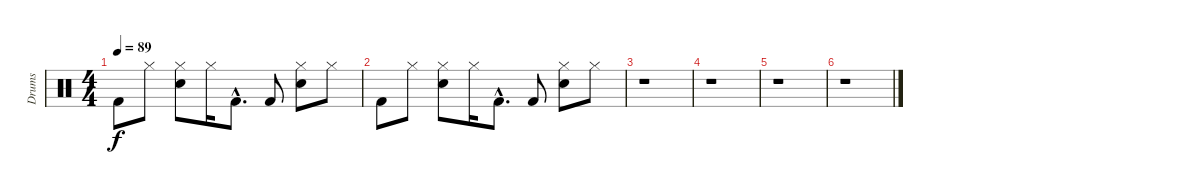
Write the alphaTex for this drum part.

\track ("Drums" "Drums") {instrument percussion}
\staff {score}
\articulation defaults
\ts (4 4)
\tempo 89
\clef neutral
\ks c "Kick (hit) 2".8{dy f} "Hi-Hat (closed)".8
("Hi-Hat (closed)" "Electric Snare (hit)").8 "Hi-Hat (closed)".16 "Kick (hit) 2"{hac}.8{d} "Kick (hit) 2".8 ("Hi-Hat (closed)" "Electric Snare (hit)").8 "Hi-Hat (closed)".8 |
"Kick (hit) 2".8 "Hi-Hat (closed)".8 ("Hi-Hat (closed)" "Electric Snare (hit)").8 "Hi-Hat (closed)".16 "Kick (hit) 2"{hac}.8{d} "Kick (hit) 2".8 ("Hi-Hat (closed)" "Electric Snare (hit)").8 "Hi-Hat (closed)".8 |
r.1 |
r.1 |
r.1 |
r.1
